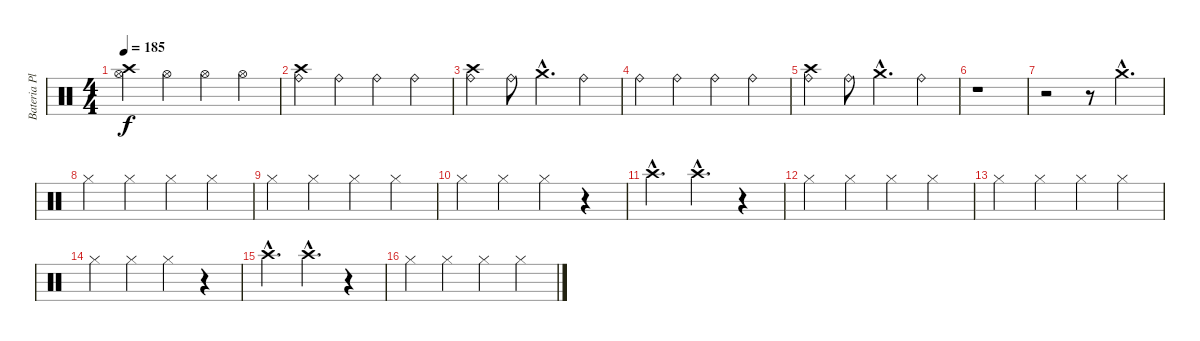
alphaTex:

\track ("Bateria Platos" "Bateria Pl") {instrument percussion}
\staff {score}
\articulation defaults
\ts (4 4)
\tempo 185
\clef neutral
\ks c
("Crash high (hit)" "Hi-Hat (open)").4{dy f} "Hi-Hat (open)".4 "Hi-Hat (open)".4 "Hi-Hat (open)".4 |
("Crash high (hit)" "Ride (bell)").4 "Ride (bell)".4 "Ride (bell)".4 "Ride (bell)".4 |
("Crash high (hit)" "Ride (bell)").4 "Ride (bell)".8 "Crash medium (hit)"{hac}.4{d} "Ride (bell)".4 |
"Ride (bell)".4 "Ride (bell)".4 "Ride (bell)".4 "Ride (bell)".4 |
("Crash high (hit)" "Ride (bell)").4 "Ride (bell)".8 "Crash medium (hit)"{hac}.4{d} "Ride (bell)".4 |
r.1 |
r.2 r.8 "Crash medium (hit)"{hac}.4{d} |
"Hi-Hat (closed)".4 "Hi-Hat (closed)".4 "Hi-Hat (closed)".4 "Hi-Hat (closed)".4 |
"Hi-Hat (closed)".4 "Hi-Hat (closed)".4 "Hi-Hat (closed)".4 "Hi-Hat (closed)".4 |
"Hi-Hat (closed)".4 "Hi-Hat (closed)".4 "Hi-Hat (closed)".4 r.4 |
"Crash high (hit)"{hac}.4{d} "Crash high (hit)"{hac}.4{d} r.4 |
"Hi-Hat (closed)".4 "Hi-Hat (closed)".4 "Hi-Hat (closed)".4 "Hi-Hat (closed)".4 |
"Hi-Hat (closed)".4 "Hi-Hat (closed)".4 "Hi-Hat (closed)".4 "Hi-Hat (closed)".4 |
"Hi-Hat (closed)".4 "Hi-Hat (closed)".4 "Hi-Hat (closed)".4 r.4 |
"Crash high (hit)"{hac}.4{d} "Crash high (hit)"{hac}.4{d} r.4 |
"Hi-Hat (closed)".4 "Hi-Hat (closed)".4 "Hi-Hat (closed)".4 "Hi-Hat (closed)".4
